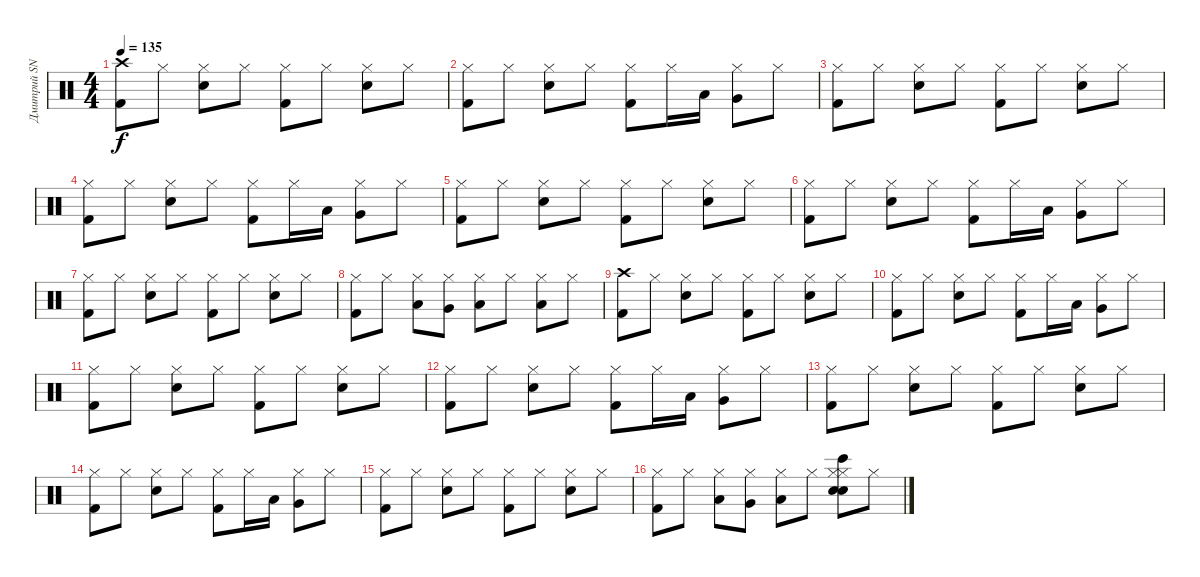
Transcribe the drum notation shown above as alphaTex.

\track ("Дмитрий SNAKE Хакимов" "Дмитрий SN") {instrument percussion}
\staff {score}
\articulation defaults
\ts (4 4)
\tempo 135
\clef neutral
\ks c
("Crash high (hit)" "Kick (hit) 2").8{dy f} "Hi-Hat (closed)".8 ("Hi-Hat (closed)" "Electric Snare (hit)").8 "Hi-Hat (closed)".8 ("Hi-Hat (closed)" "Kick (hit) 2").8 "Hi-Hat (closed)".8 ("Hi-Hat (closed)" "Electric Snare (hit)").8 "Hi-Hat (closed)".8 |
("Hi-Hat (closed)" "Kick (hit) 2").8 "Hi-Hat (closed)".8 ("Hi-Hat (closed)" "Electric Snare (hit)").8 "Hi-Hat (closed)".8 ("Hi-Hat (closed)" "Kick (hit) 2").8 "Hi-Hat (closed)".16 "Low Tom (hit)".16 ("Hi-Hat (closed)" "Very Low Tom (hit)").8 "Hi-Hat (closed)".8 |
("Hi-Hat (closed)" "Kick (hit) 2").8 "Hi-Hat (closed)".8 ("Hi-Hat (closed)" "Electric Snare (hit)").8 "Hi-Hat (closed)".8 ("Hi-Hat (closed)" "Kick (hit) 2").8 "Hi-Hat (closed)".8 ("Hi-Hat (closed)" "Electric Snare (hit)").8 "Hi-Hat (closed)".8 |
("Hi-Hat (closed)" "Kick (hit) 2").8 "Hi-Hat (closed)".8 ("Hi-Hat (closed)" "Electric Snare (hit)").8 "Hi-Hat (closed)".8 ("Hi-Hat (closed)" "Kick (hit) 2").8 "Hi-Hat (closed)".16 "Low Tom (hit)".16 ("Hi-Hat (closed)" "Very Low Tom (hit)").8 "Hi-Hat (closed)".8 |
("Hi-Hat (closed)" "Kick (hit) 2").8 "Hi-Hat (closed)".8 ("Hi-Hat (closed)" "Electric Snare (hit)").8 "Hi-Hat (closed)".8 ("Hi-Hat (closed)" "Kick (hit) 2").8 "Hi-Hat (closed)".8 ("Hi-Hat (closed)" "Electric Snare (hit)").8 "Hi-Hat (closed)".8 |
("Hi-Hat (closed)" "Kick (hit) 2").8 "Hi-Hat (closed)".8 ("Hi-Hat (closed)" "Electric Snare (hit)").8 "Hi-Hat (closed)".8 ("Hi-Hat (closed)" "Kick (hit) 2").8 "Hi-Hat (closed)".16 "Low Tom (hit)".16 ("Hi-Hat (closed)" "Very Low Tom (hit)").8 "Hi-Hat (closed)".8 |
("Hi-Hat (closed)" "Kick (hit) 2").8 "Hi-Hat (closed)".8 ("Hi-Hat (closed)" "Electric Snare (hit)").8 "Hi-Hat (closed)".8 ("Hi-Hat (closed)" "Kick (hit) 2").8 "Hi-Hat (closed)".8 ("Hi-Hat (closed)" "Electric Snare (hit)").8 "Hi-Hat (closed)".8 |
("Hi-Hat (closed)" "Kick (hit) 2").8 "Hi-Hat (closed)".8 ("Hi-Hat (closed)" "Low Tom (hit)").8 ("Hi-Hat (closed)" "Very Low Tom (hit)").8 ("Hi-Hat (closed)" "Low Floor Tom (hit)").8 "Hi-Hat (closed)".8 ("Hi-Hat (closed)" "Low Tom (hit)").8 "Hi-Hat (closed)".8 |
("Crash high (hit)" "Kick (hit) 2").8 "Hi-Hat (closed)".8 ("Hi-Hat (closed)" "Electric Snare (hit)").8 "Hi-Hat (closed)".8 ("Hi-Hat (closed)" "Kick (hit) 2").8 "Hi-Hat (closed)".8 ("Hi-Hat (closed)" "Electric Snare (hit)").8 "Hi-Hat (closed)".8 |
("Hi-Hat (closed)" "Kick (hit) 2").8 "Hi-Hat (closed)".8 ("Hi-Hat (closed)" "Electric Snare (hit)").8 "Hi-Hat (closed)".8 ("Hi-Hat (closed)" "Kick (hit) 2").8 "Hi-Hat (closed)".16 "Low Tom (hit)".16 ("Hi-Hat (closed)" "Very Low Tom (hit)").8 "Hi-Hat (closed)".8 |
("Hi-Hat (closed)" "Kick (hit) 2").8 "Hi-Hat (closed)".8 ("Hi-Hat (closed)" "Electric Snare (hit)").8 "Hi-Hat (closed)".8 ("Hi-Hat (closed)" "Kick (hit) 2").8 "Hi-Hat (closed)".8 ("Hi-Hat (closed)" "Electric Snare (hit)").8 "Hi-Hat (closed)".8 |
("Hi-Hat (closed)" "Kick (hit) 2").8 "Hi-Hat (closed)".8 ("Hi-Hat (closed)" "Electric Snare (hit)").8 "Hi-Hat (closed)".8 ("Hi-Hat (closed)" "Kick (hit) 2").8 "Hi-Hat (closed)".16 "Low Tom (hit)".16 ("Hi-Hat (closed)" "Very Low Tom (hit)").8 "Hi-Hat (closed)".8 |
("Hi-Hat (closed)" "Kick (hit) 2").8 "Hi-Hat (closed)".8 ("Hi-Hat (closed)" "Electric Snare (hit)").8 "Hi-Hat (closed)".8 ("Hi-Hat (closed)" "Kick (hit) 2").8 "Hi-Hat (closed)".8 ("Hi-Hat (closed)" "Electric Snare (hit)").8 "Hi-Hat (closed)".8 |
("Hi-Hat (closed)" "Kick (hit) 2").8 "Hi-Hat (closed)".8 ("Hi-Hat (closed)" "Electric Snare (hit)").8 "Hi-Hat (closed)".8 ("Hi-Hat (closed)" "Kick (hit) 2").8 "Hi-Hat (closed)".16 "Low Tom (hit)".16 ("Hi-Hat (closed)" "Very Low Tom (hit)").8 "Hi-Hat (closed)".8 |
("Hi-Hat (closed)" "Kick (hit) 2").8 "Hi-Hat (closed)".8 ("Hi-Hat (closed)" "Electric Snare (hit)").8 "Hi-Hat (closed)".8 ("Hi-Hat (closed)" "Kick (hit) 2").8 "Hi-Hat (closed)".8 ("Hi-Hat (closed)" "Electric Snare (hit)").8 "Hi-Hat (closed)".8 |
("Hi-Hat (closed)" "Kick (hit) 2").8 "Hi-Hat (closed)".8 ("Hi-Hat (closed)" "Low Tom (hit)").8 ("Hi-Hat (closed)" "Very Low Tom (hit)").8 ("Hi-Hat (closed)" "Low Floor Tom (hit)").8 "Hi-Hat (closed)".8 ("Hi-Hat (closed)" "Bongo High (hit)" "Electric Snare (hit)" "Snare (hit) 2" "Hi-Hat (closed)").8 "Hi-Hat (closed)".8
